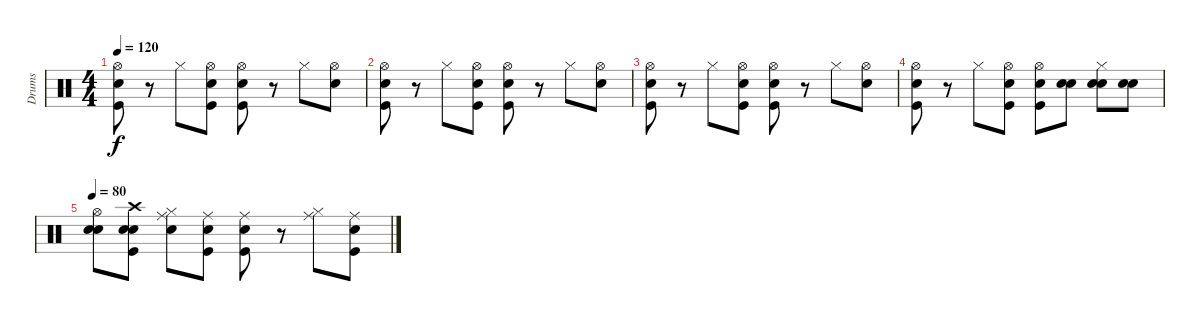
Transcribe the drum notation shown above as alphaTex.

\track ("Drums" "Drums") {instrument percussion}
\staff {score}
\articulation defaults
\ts (4 4)
\tempo 120
\clef neutral
\ks c
("Snare (hit)" "Kick (hit)" "Hi-Hat (open)").8{dy f} r.8 "Hi-Hat (closed)".8 ("Snare (hit)" "Kick (hit)" "Hi-Hat (open)").8 ("Snare (hit)" "Kick (hit)" "Hi-Hat (open)").8 r.8 "Hi-Hat (closed)".8 ("Snare (hit)" "Hi-Hat (open)").8 |
("Snare (hit)" "Kick (hit)" "Hi-Hat (open)").8 r.8 "Hi-Hat (closed)".8 ("Snare (hit)" "Kick (hit)" "Hi-Hat (open)").8 ("Snare (hit)" "Kick (hit)" "Hi-Hat (open)").8 r.8 "Hi-Hat (closed)".8 ("Snare (hit)" "Hi-Hat (open)").8 |
("Snare (hit)" "Kick (hit)" "Hi-Hat (open)").8 r.8 "Hi-Hat (closed)".8 ("Snare (hit)" "Kick (hit)" "Hi-Hat (open)").8 ("Snare (hit)" "Kick (hit)" "Hi-Hat (open)").8 r.8 "Hi-Hat (closed)".8 ("Snare (hit)" "Hi-Hat (open)").8 |
("Snare (hit)" "Kick (hit)" "Hi-Hat (open)").8 r.8 "Hi-Hat (closed)".8 ("Snare (hit)" "Kick (hit)" "Hi-Hat (open)").8 ("Snare (hit)" "Kick (hit)" "Hi-Hat (open)").8 ("Snare (hit)" "Snare (hit) 2").8 ("Snare (hit)" "Snare (hit) 2" "Hi-Hat (closed)").8 ("Snare (hit)" "Snare (hit) 2").8 |
\tempo 80
("Snare (hit)" "Snare (hit) 2" "Hi-Hat (open)").8 ("Snare (hit)" "Kick (hit)" "Snare (hit) 2" "Crash high (hit)").8 ("Snare (hit)" "Hi-Hat (closed)" "Ride (middle)").8 ("Snare (hit)" "Kick (hit)" "Ride (middle)").8 ("Snare (hit)" "Kick (hit)" "Ride (middle)").8 r.8 ("Hi-Hat (closed)" "Ride (middle)").8 ("Snare (hit)" "Kick (hit)" "Ride (middle)").8
